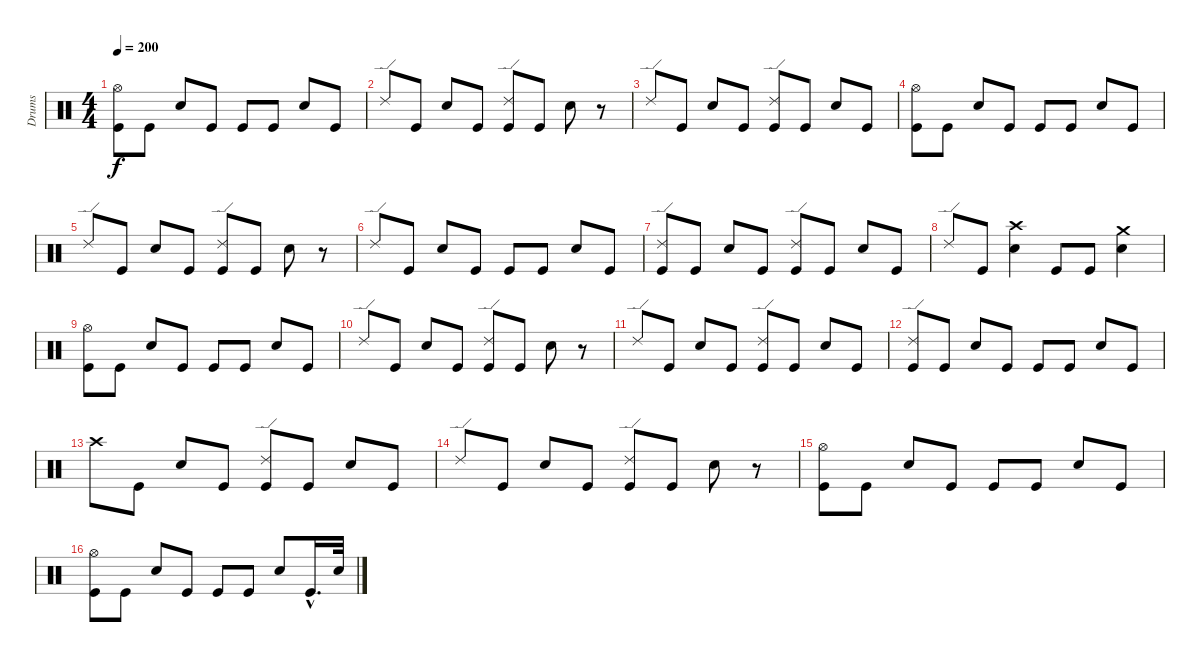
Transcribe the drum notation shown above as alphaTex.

\track ("Drums" "Drums") {instrument percussion}
\staff {score}
\articulation defaults
\ts (4 4)
\tempo 200
\clef neutral
\ks c
("Hi-Hat (open)" "Kick (hit)").8{dy f} "Kick (hit)".8 "Snare (hit) 2".8 "Kick (hit)".8 "Kick (hit)".8 "Kick (hit)".8 "Snare (hit) 2".8 "Kick (hit)".8 |
"Ride (edge) 2".8 "Kick (hit)".8 "Snare (hit) 2".8 "Kick (hit)".8 ("Ride (edge) 2" "Kick (hit)").8 "Kick (hit)".8 "Snare (hit) 2".8 r.8 |
"Ride (edge) 2".8 "Kick (hit)".8 "Snare (hit) 2".8 "Kick (hit)".8 ("Ride (edge) 2" "Kick (hit)").8 "Kick (hit)".8 "Snare (hit) 2".8 "Kick (hit)".8 |
("Hi-Hat (open)" "Kick (hit)").8 "Kick (hit)".8 "Snare (hit) 2".8 "Kick (hit)".8 "Kick (hit)".8 "Kick (hit)".8 "Snare (hit) 2".8 "Kick (hit)".8 |
"Ride (edge) 2".8 "Kick (hit)".8 "Snare (hit) 2".8 "Kick (hit)".8 ("Ride (edge) 2" "Kick (hit)").8 "Kick (hit)".8 "Snare (hit) 2".8 r.8 |
"Ride (edge) 2".8 "Kick (hit)".8 "Snare (hit) 2".8 "Kick (hit)".8 "Kick (hit)".8 "Kick (hit)".8 "Snare (hit) 2".8 "Kick (hit)".8 |
("Ride (edge) 2" "Kick (hit)").8 "Kick (hit)".8 "Snare (hit) 2".8 "Kick (hit)".8 ("Ride (edge) 2" "Kick (hit)").8 "Kick (hit)".8 "Snare (hit) 2".8 "Kick (hit)".8 |
"Ride (edge) 2".8 "Kick (hit)".8 ("Crash high (hit)" "Snare (hit) 2").4 "Kick (hit)".8 "Kick (hit)".8 ("Crash medium (hit)" "Snare (hit) 2").4 |
("Hi-Hat (open)" "Kick (hit)").8 "Kick (hit)".8 "Snare (hit) 2".8 "Kick (hit)".8 "Kick (hit)".8 "Kick (hit)".8 "Snare (hit) 2".8 "Kick (hit)".8 |
"Ride (edge) 2".8 "Kick (hit)".8 "Snare (hit) 2".8 "Kick (hit)".8 ("Ride (edge) 2" "Kick (hit)").8 "Kick (hit)".8 "Snare (hit) 2".8 r.8 |
"Ride (edge) 2".8 "Kick (hit)".8 "Snare (hit) 2".8 "Kick (hit)".8 ("Ride (edge) 2" "Kick (hit)").8 "Kick (hit)".8 "Snare (hit) 2".8 "Kick (hit)".8 |
("Ride (edge) 2" "Kick (hit)").8 "Kick (hit)".8 "Snare (hit) 2".8 "Kick (hit)".8 "Kick (hit)".8 "Kick (hit)".8 "Snare (hit) 2".8 "Kick (hit)".8 |
"Crash high (hit)".8 "Kick (hit)".8 "Snare (hit) 2".8 "Kick (hit)".8 ("Ride (edge) 2" "Kick (hit)").8 "Kick (hit)".8 "Snare (hit) 2".8 "Kick (hit)".8 |
"Ride (edge) 2".8 "Kick (hit)".8 "Snare (hit) 2".8 "Kick (hit)".8 ("Ride (edge) 2" "Kick (hit)").8 "Kick (hit)".8 "Snare (hit) 2".8 r.8 |
("Hi-Hat (open)" "Kick (hit)").8 "Kick (hit)".8 "Snare (hit) 2".8 "Kick (hit)".8 "Kick (hit)".8 "Kick (hit)".8 "Snare (hit) 2".8 "Kick (hit)".8 |
("Hi-Hat (open)" "Kick (hit)").8 "Kick (hit)".8 "Snare (hit) 2".8 "Kick (hit)".8 "Kick (hit)".8 "Kick (hit)".8 "Snare (hit) 2".8 "Kick (hit)"{hac}.16{d} "Snare (hit) 2".32
